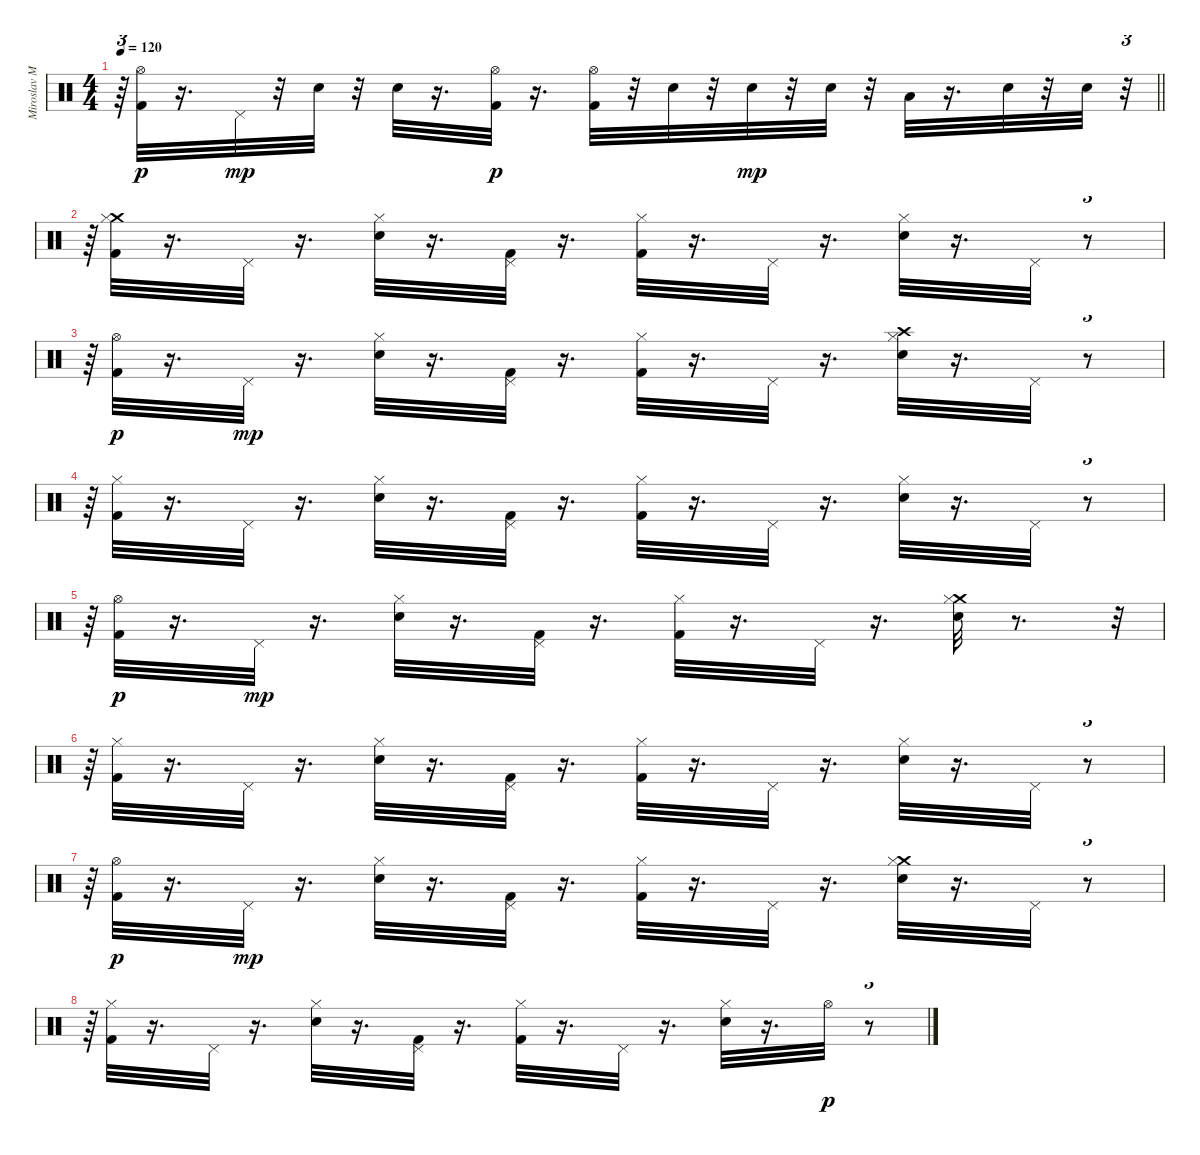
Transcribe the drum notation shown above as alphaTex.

\track ("Miroslav Milatovic-Vicko-bubnjevi" "Miroslav M") {instrument percussion}
\staff {score}
\articulation defaults
\ts (4 4)
\tempo 120
\clef neutral
\barLineRight lightlight
\ks c
r.64{tu (3 2) dy mp} ("Hi-Hat (open)" "Kick (hit) 2").32{dy p} r.16{d} "Pedal Hi-Hat (hit)".32{dy mp} r.32 "Electric Snare (hit)".32 r.32 "Electric Snare (hit)".32 r.16{d} ("Hi-Hat (open)" "Kick (hit) 2").32{dy p} r.16{d} ("Hi-Hat (open)" "Kick (hit) 2").32 r.32 "Electric Snare (hit)".32 r.32 "Electric Snare (hit)".32{dy mp} r.32 "Electric Snare (hit)".32 r.32 "Low Tom (hit)".32 r.16{d} "Electric Snare (hit)".32 r.32 "Electric Snare (hit)".32 r.32{tu (3 2)} |
r.64{tu (3 2)} ("Crash medium (hit)" "Kick (hit) 2" "Hi-Hat (closed)").32 r.16{d} "Pedal Hi-Hat (hit)".32 r.16{d} ("Electric Snare (hit)" "Hi-Hat (closed)").32 r.16{d} ("Kick (hit) 2" "Pedal Hi-Hat (hit)").32 r.16{d} ("Kick (hit) 2" "Hi-Hat (closed)").32 r.16{d} "Pedal Hi-Hat (hit)".32 r.16{d} ("Electric Snare (hit)" "Hi-Hat (closed)").32 r.16{d} "Pedal Hi-Hat (hit)".32 r.8{tu (3 2)} |
r.64{tu (3 2)} ("Hi-Hat (open)" "Kick (hit) 2").32{dy p} r.16{d} "Pedal Hi-Hat (hit)".32{dy mp} r.16{d} ("Hi-Hat (closed)" "Electric Snare (hit)").32 r.16{d} ("Pedal Hi-Hat (hit)" "Kick (hit) 2").32 r.16{d} ("Hi-Hat (closed)" "Kick (hit) 2").32 r.16{d} "Pedal Hi-Hat (hit)".32 r.16{d} ("Crash high (hit)" "Hi-Hat (closed)" "Electric Snare (hit)").32 r.16{d} "Pedal Hi-Hat (hit)".32 r.8{tu (3 2)} |
r.64{tu (3 2)} ("Hi-Hat (closed)" "Kick (hit) 2").32 r.16{d} "Pedal Hi-Hat (hit)".32 r.16{d} ("Hi-Hat (closed)" "Electric Snare (hit)").32 r.16{d} ("Pedal Hi-Hat (hit)" "Kick (hit) 2").32 r.16{d} ("Hi-Hat (closed)" "Kick (hit) 2").32 r.16{d} "Pedal Hi-Hat (hit)".32 r.16{d} ("Hi-Hat (closed)" "Electric Snare (hit)").32 r.16{d} "Pedal Hi-Hat (hit)".32 r.8{tu (3 2)} |
r.64{tu (3 2)} ("Hi-Hat (open)" "Kick (hit) 2").32{dy p} r.16{d} "Pedal Hi-Hat (hit)".32{dy mp} r.16{d} ("Electric Snare (hit)" "Hi-Hat (closed)").32 r.16{d} ("Kick (hit) 2" "Pedal Hi-Hat (hit)").32 r.16{d} ("Kick (hit) 2" "Hi-Hat (closed)").32 r.16{d} "Pedal Hi-Hat (hit)".32 r.16{d} ("Crash medium (hit)" "Electric Snare (hit)" "Hi-Hat (closed)").32 r.8{d} r.32{tu (3 2)} |
r.64{tu (3 2)} ("Hi-Hat (closed)" "Kick (hit) 2").32 r.16{d} "Pedal Hi-Hat (hit)".32 r.16{d} ("Hi-Hat (closed)" "Electric Snare (hit)").32 r.16{d} ("Pedal Hi-Hat (hit)" "Kick (hit) 2").32 r.16{d} ("Hi-Hat (closed)" "Kick (hit) 2").32 r.16{d} "Pedal Hi-Hat (hit)".32 r.16{d} ("Hi-Hat (closed)" "Electric Snare (hit)").32 r.16{d} "Pedal Hi-Hat (hit)".32 r.8{tu (3 2)} |
r.64{tu (3 2)} ("Hi-Hat (open)" "Kick (hit) 2").32{dy p} r.16{d} "Pedal Hi-Hat (hit)".32{dy mp} r.16{d} ("Electric Snare (hit)" "Hi-Hat (closed)").32 r.16{d} ("Kick (hit) 2" "Pedal Hi-Hat (hit)").32 r.16{d} ("Kick (hit) 2" "Hi-Hat (closed)").32 r.16{d} "Pedal Hi-Hat (hit)".32 r.16{d} ("Crash medium (hit)" "Electric Snare (hit)" "Hi-Hat (closed)").32 r.16{d} "Pedal Hi-Hat (hit)".32 r.8{tu (3 2)} |
r.64{tu (3 2)} ("Kick (hit) 2" "Hi-Hat (closed)").32 r.16{d} "Pedal Hi-Hat (hit)".32 r.16{d} ("Electric Snare (hit)" "Hi-Hat (closed)").32 r.16{d} ("Kick (hit) 2" "Pedal Hi-Hat (hit)").32 r.16{d} ("Kick (hit) 2" "Hi-Hat (closed)").32 r.16{d} "Pedal Hi-Hat (hit)".32 r.16{d} ("Electric Snare (hit)" "Hi-Hat (closed)").32 r.16{d} "Hi-Hat (open)".32{dy p} r.8{tu (3 2)}
